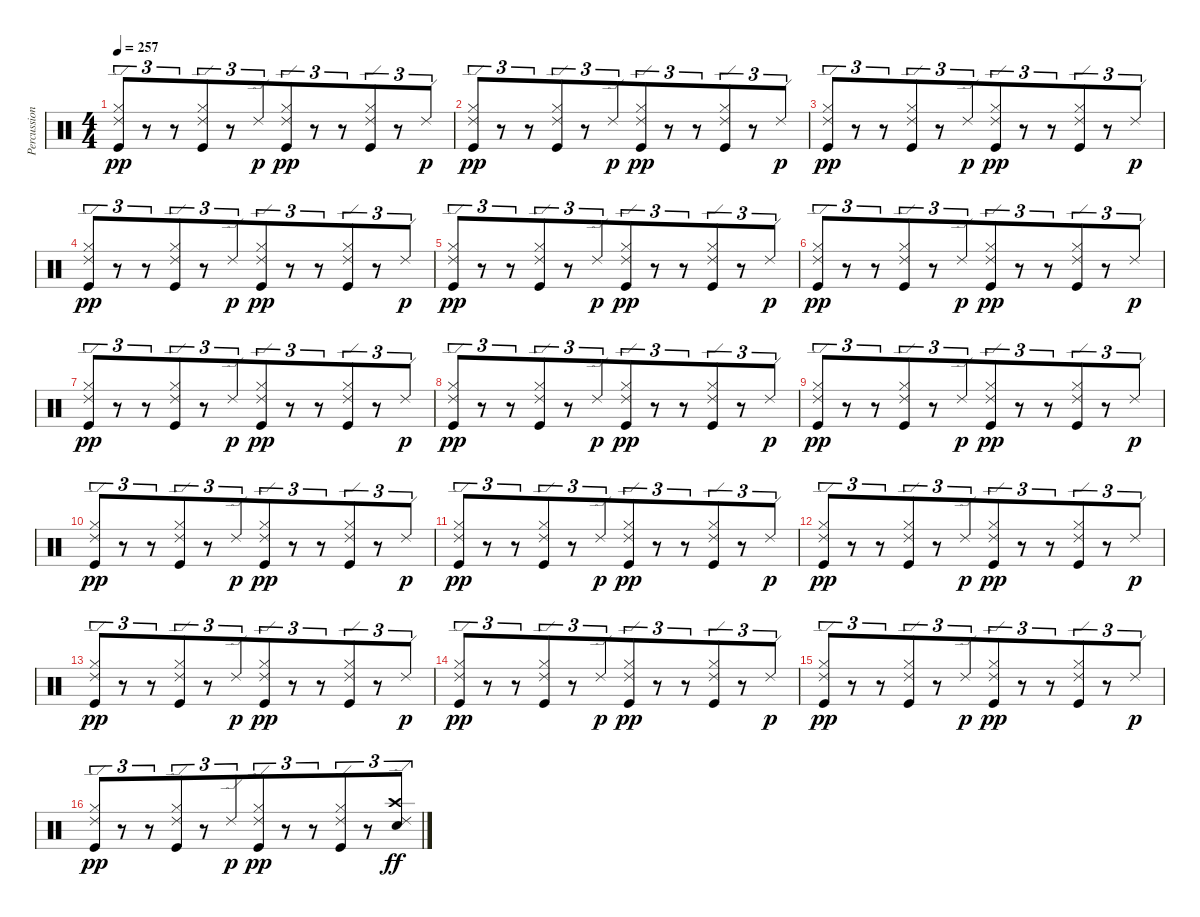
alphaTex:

\track ("Percussion" "Percussion") {instrument percussion}
\staff {score}
\articulation defaults
\ts (4 4)
\tempo 257
\clef neutral
\ks c
("Ride (edge) 2" "Hi-Hat (closed)" "Kick (hit)").8{tu (3 2) dy pp beam merge} r.8{tu (3 2) beam merge} r.8{tu (3 2)} ("Ride (edge) 2" "Hi-Hat (closed)" "Kick (hit)").8{tu (3 2)} r.8{tu (3 2)} "Ride (edge) 2".8{tu (3 2) dy p beam merge} ("Ride (edge) 2" "Hi-Hat (closed)" "Kick (hit)").8{tu (3 2) dy pp beam merge} r.8{tu (3 2) beam merge} r.8{tu (3 2)} ("Ride (edge) 2" "Hi-Hat (closed)" "Kick (hit)").8{tu (3 2)} r.8{tu (3 2)} "Ride (edge) 2".8{tu (3 2) dy p} |
("Ride (edge) 2" "Hi-Hat (closed)" "Kick (hit)").8{tu (3 2) dy pp beam merge} r.8{tu (3 2) beam merge} r.8{tu (3 2)} ("Ride (edge) 2" "Hi-Hat (closed)" "Kick (hit)").8{tu (3 2)} r.8{tu (3 2)} "Ride (edge) 2".8{tu (3 2) dy p beam merge} ("Ride (edge) 2" "Hi-Hat (closed)" "Kick (hit)").8{tu (3 2) dy pp beam merge} r.8{tu (3 2) beam merge} r.8{tu (3 2)} ("Ride (edge) 2" "Hi-Hat (closed)" "Kick (hit)").8{tu (3 2)} r.8{tu (3 2)} "Ride (edge) 2".8{tu (3 2) dy p} |
("Ride (edge) 2" "Hi-Hat (closed)" "Kick (hit)").8{tu (3 2) dy pp beam merge} r.8{tu (3 2) beam merge} r.8{tu (3 2)} ("Ride (edge) 2" "Hi-Hat (closed)" "Kick (hit)").8{tu (3 2)} r.8{tu (3 2)} "Ride (edge) 2".8{tu (3 2) dy p beam merge} ("Ride (edge) 2" "Hi-Hat (closed)" "Kick (hit)").8{tu (3 2) dy pp beam merge} r.8{tu (3 2) beam merge} r.8{tu (3 2)} ("Ride (edge) 2" "Hi-Hat (closed)" "Kick (hit)").8{tu (3 2)} r.8{tu (3 2)} "Ride (edge) 2".8{tu (3 2) dy p} |
("Ride (edge) 2" "Hi-Hat (closed)" "Kick (hit)").8{tu (3 2) dy pp beam merge} r.8{tu (3 2) beam merge} r.8{tu (3 2)} ("Ride (edge) 2" "Hi-Hat (closed)" "Kick (hit)").8{tu (3 2)} r.8{tu (3 2)} "Ride (edge) 2".8{tu (3 2) dy p beam merge} ("Ride (edge) 2" "Hi-Hat (closed)" "Kick (hit)").8{tu (3 2) dy pp beam merge} r.8{tu (3 2) beam merge} r.8{tu (3 2)} ("Ride (edge) 2" "Hi-Hat (closed)" "Kick (hit)").8{tu (3 2)} r.8{tu (3 2)} "Ride (edge) 2".8{tu (3 2) dy p} |
("Ride (edge) 2" "Hi-Hat (closed)" "Kick (hit)").8{tu (3 2) dy pp beam merge} r.8{tu (3 2) beam merge} r.8{tu (3 2)} ("Ride (edge) 2" "Hi-Hat (closed)" "Kick (hit)").8{tu (3 2)} r.8{tu (3 2)} "Ride (edge) 2".8{tu (3 2) dy p beam merge} ("Ride (edge) 2" "Hi-Hat (closed)" "Kick (hit)").8{tu (3 2) dy pp beam merge} r.8{tu (3 2) beam merge} r.8{tu (3 2)} ("Ride (edge) 2" "Hi-Hat (closed)" "Kick (hit)").8{tu (3 2)} r.8{tu (3 2)} "Ride (edge) 2".8{tu (3 2) dy p} |
("Ride (edge) 2" "Hi-Hat (closed)" "Kick (hit)").8{tu (3 2) dy pp beam merge} r.8{tu (3 2) beam merge} r.8{tu (3 2)} ("Ride (edge) 2" "Hi-Hat (closed)" "Kick (hit)").8{tu (3 2)} r.8{tu (3 2)} "Ride (edge) 2".8{tu (3 2) dy p beam merge} ("Ride (edge) 2" "Hi-Hat (closed)" "Kick (hit)").8{tu (3 2) dy pp beam merge} r.8{tu (3 2) beam merge} r.8{tu (3 2)} ("Ride (edge) 2" "Hi-Hat (closed)" "Kick (hit)").8{tu (3 2)} r.8{tu (3 2)} "Ride (edge) 2".8{tu (3 2) dy p} |
("Ride (edge) 2" "Hi-Hat (closed)" "Kick (hit)").8{tu (3 2) dy pp beam merge} r.8{tu (3 2) beam merge} r.8{tu (3 2)} ("Ride (edge) 2" "Hi-Hat (closed)" "Kick (hit)").8{tu (3 2)} r.8{tu (3 2)} "Ride (edge) 2".8{tu (3 2) dy p beam merge} ("Ride (edge) 2" "Hi-Hat (closed)" "Kick (hit)").8{tu (3 2) dy pp beam merge} r.8{tu (3 2) beam merge} r.8{tu (3 2)} ("Ride (edge) 2" "Hi-Hat (closed)" "Kick (hit)").8{tu (3 2)} r.8{tu (3 2)} "Ride (edge) 2".8{tu (3 2) dy p} |
("Ride (edge) 2" "Hi-Hat (closed)" "Kick (hit)").8{tu (3 2) dy pp beam merge} r.8{tu (3 2) beam merge} r.8{tu (3 2)} ("Ride (edge) 2" "Hi-Hat (closed)" "Kick (hit)").8{tu (3 2)} r.8{tu (3 2)} "Ride (edge) 2".8{tu (3 2) dy p beam merge} ("Ride (edge) 2" "Hi-Hat (closed)" "Kick (hit)").8{tu (3 2) dy pp beam merge} r.8{tu (3 2) beam merge} r.8{tu (3 2)} ("Ride (edge) 2" "Hi-Hat (closed)" "Kick (hit)").8{tu (3 2)} r.8{tu (3 2)} "Ride (edge) 2".8{tu (3 2) dy p} |
("Ride (edge) 2" "Hi-Hat (closed)" "Kick (hit)").8{tu (3 2) dy pp beam merge} r.8{tu (3 2) beam merge} r.8{tu (3 2)} ("Ride (edge) 2" "Hi-Hat (closed)" "Kick (hit)").8{tu (3 2)} r.8{tu (3 2)} "Ride (edge) 2".8{tu (3 2) dy p beam merge} ("Ride (edge) 2" "Hi-Hat (closed)" "Kick (hit)").8{tu (3 2) dy pp beam merge} r.8{tu (3 2) beam merge} r.8{tu (3 2)} ("Ride (edge) 2" "Hi-Hat (closed)" "Kick (hit)").8{tu (3 2)} r.8{tu (3 2)} "Ride (edge) 2".8{tu (3 2) dy p} |
("Ride (edge) 2" "Hi-Hat (closed)" "Kick (hit)").8{tu (3 2) dy pp beam merge} r.8{tu (3 2) beam merge} r.8{tu (3 2)} ("Ride (edge) 2" "Hi-Hat (closed)" "Kick (hit)").8{tu (3 2)} r.8{tu (3 2)} "Ride (edge) 2".8{tu (3 2) dy p beam merge} ("Ride (edge) 2" "Hi-Hat (closed)" "Kick (hit)").8{tu (3 2) dy pp beam merge} r.8{tu (3 2) beam merge} r.8{tu (3 2)} ("Ride (edge) 2" "Hi-Hat (closed)" "Kick (hit)").8{tu (3 2)} r.8{tu (3 2)} "Ride (edge) 2".8{tu (3 2) dy p} |
("Ride (edge) 2" "Hi-Hat (closed)" "Kick (hit)").8{tu (3 2) dy pp beam merge} r.8{tu (3 2) beam merge} r.8{tu (3 2)} ("Ride (edge) 2" "Hi-Hat (closed)" "Kick (hit)").8{tu (3 2)} r.8{tu (3 2)} "Ride (edge) 2".8{tu (3 2) dy p beam merge} ("Ride (edge) 2" "Hi-Hat (closed)" "Kick (hit)").8{tu (3 2) dy pp beam merge} r.8{tu (3 2) beam merge} r.8{tu (3 2)} ("Ride (edge) 2" "Hi-Hat (closed)" "Kick (hit)").8{tu (3 2)} r.8{tu (3 2)} "Ride (edge) 2".8{tu (3 2) dy p} |
("Ride (edge) 2" "Hi-Hat (closed)" "Kick (hit)").8{tu (3 2) dy pp beam merge} r.8{tu (3 2) beam merge} r.8{tu (3 2)} ("Ride (edge) 2" "Hi-Hat (closed)" "Kick (hit)").8{tu (3 2)} r.8{tu (3 2)} "Ride (edge) 2".8{tu (3 2) dy p beam merge} ("Ride (edge) 2" "Hi-Hat (closed)" "Kick (hit)").8{tu (3 2) dy pp beam merge} r.8{tu (3 2) beam merge} r.8{tu (3 2)} ("Ride (edge) 2" "Hi-Hat (closed)" "Kick (hit)").8{tu (3 2)} r.8{tu (3 2)} "Ride (edge) 2".8{tu (3 2) dy p} |
("Ride (edge) 2" "Hi-Hat (closed)" "Kick (hit)").8{tu (3 2) dy pp beam merge} r.8{tu (3 2) beam merge} r.8{tu (3 2)} ("Ride (edge) 2" "Hi-Hat (closed)" "Kick (hit)").8{tu (3 2)} r.8{tu (3 2)} "Ride (edge) 2".8{tu (3 2) dy p beam merge} ("Ride (edge) 2" "Hi-Hat (closed)" "Kick (hit)").8{tu (3 2) dy pp beam merge} r.8{tu (3 2) beam merge} r.8{tu (3 2)} ("Ride (edge) 2" "Hi-Hat (closed)" "Kick (hit)").8{tu (3 2)} r.8{tu (3 2)} "Ride (edge) 2".8{tu (3 2) dy p} |
("Ride (edge) 2" "Hi-Hat (closed)" "Kick (hit)").8{tu (3 2) dy pp beam merge} r.8{tu (3 2) beam merge} r.8{tu (3 2)} ("Ride (edge) 2" "Hi-Hat (closed)" "Kick (hit)").8{tu (3 2)} r.8{tu (3 2)} "Ride (edge) 2".8{tu (3 2) dy p beam merge} ("Ride (edge) 2" "Hi-Hat (closed)" "Kick (hit)").8{tu (3 2) dy pp beam merge} r.8{tu (3 2) beam merge} r.8{tu (3 2)} ("Ride (edge) 2" "Hi-Hat (closed)" "Kick (hit)").8{tu (3 2)} r.8{tu (3 2)} "Ride (edge) 2".8{tu (3 2) dy p} |
("Ride (edge) 2" "Hi-Hat (closed)" "Kick (hit)").8{tu (3 2) dy pp beam merge} r.8{tu (3 2) beam merge} r.8{tu (3 2)} ("Ride (edge) 2" "Hi-Hat (closed)" "Kick (hit)").8{tu (3 2)} r.8{tu (3 2)} "Ride (edge) 2".8{tu (3 2) dy p beam merge} ("Ride (edge) 2" "Hi-Hat (closed)" "Kick (hit)").8{tu (3 2) dy pp beam merge} r.8{tu (3 2) beam merge} r.8{tu (3 2)} ("Ride (edge) 2" "Hi-Hat (closed)" "Kick (hit)").8{tu (3 2)} r.8{tu (3 2)} "Ride (edge) 2".8{tu (3 2) dy p} |
("Ride (edge) 2" "Hi-Hat (closed)" "Kick (hit)").8{tu (3 2) dy pp beam merge} r.8{tu (3 2) beam merge} r.8{tu (3 2)} ("Ride (edge) 2" "Hi-Hat (closed)" "Kick (hit)").8{tu (3 2)} r.8{tu (3 2)} "Ride (edge) 2".8{tu (3 2) dy p beam merge} ("Ride (edge) 2" "Hi-Hat (closed)" "Kick (hit)").8{tu (3 2) dy pp beam merge} r.8{tu (3 2) beam merge} r.8{tu (3 2)} ("Ride (edge) 2" "Hi-Hat (closed)" "Kick (hit)").8{tu (3 2)} r.8{tu (3 2)} ("Ride (edge) 2" "Crash high (hit)" "Electric Snare (hit)").8{tu (3 2) dy ff}
